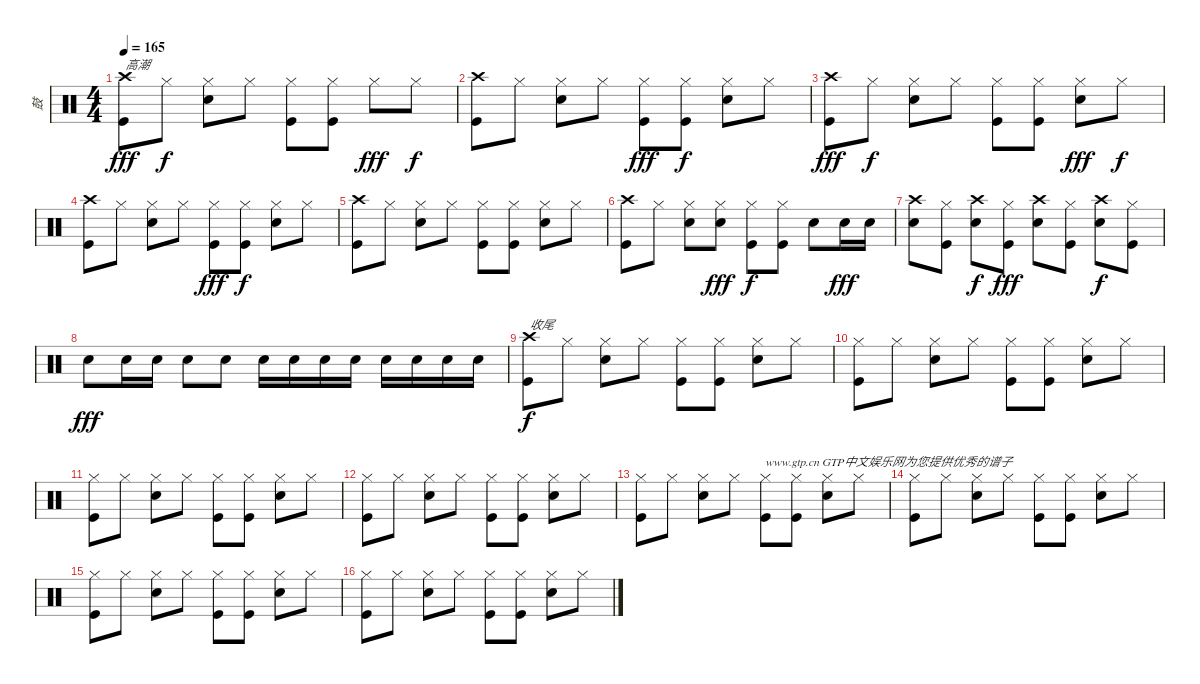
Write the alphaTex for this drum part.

\track ("鼓" "鼓") {instrument percussion}
\staff {score}
\articulation defaults
\ts (4 4)
\tempo 165
\clef neutral
\ks c
("Crash high (hit)" "Kick (hit)").8{txt "高潮" dy fff} "Hi-Hat (closed)".8{dy f} ("Hi-Hat (closed)" "Snare (hit) 2").8 "Hi-Hat (closed)".8 ("Hi-Hat (closed)" "Kick (hit)").8 ("Hi-Hat (closed)" "Kick (hit)").8 "Hi-Hat (closed)".8{dy fff} "Hi-Hat (closed)".8{dy f} |
("Crash high (hit)" "Kick (hit)").8 "Hi-Hat (closed)".8 ("Hi-Hat (closed)" "Snare (hit) 2").8 "Hi-Hat (closed)".8 ("Hi-Hat (closed)" "Kick (hit)").8{dy fff} ("Hi-Hat (closed)" "Kick (hit)").8{dy f} ("Hi-Hat (closed)" "Snare (hit) 2").8 "Hi-Hat (closed)".8 |
("Crash high (hit)" "Kick (hit)").8{dy fff} "Hi-Hat (closed)".8{dy f} ("Hi-Hat (closed)" "Snare (hit) 2").8 "Hi-Hat (closed)".8 ("Hi-Hat (closed)" "Kick (hit)").8 ("Hi-Hat (closed)" "Kick (hit)").8 ("Hi-Hat (closed)" "Snare (hit) 2").8{dy fff} "Hi-Hat (closed)".8{dy f} |
("Crash high (hit)" "Kick (hit)").8 "Hi-Hat (closed)".8 ("Hi-Hat (closed)" "Snare (hit) 2").8 "Hi-Hat (closed)".8 ("Hi-Hat (closed)" "Kick (hit)").8{dy fff} ("Hi-Hat (closed)" "Kick (hit)").8{dy f} ("Hi-Hat (closed)" "Snare (hit) 2").8 "Hi-Hat (closed)".8 |
("Crash high (hit)" "Kick (hit)").8 "Hi-Hat (closed)".8 ("Hi-Hat (closed)" "Snare (hit) 2").8 "Hi-Hat (closed)".8 ("Hi-Hat (closed)" "Kick (hit)").8 ("Hi-Hat (closed)" "Kick (hit)").8 ("Hi-Hat (closed)" "Snare (hit) 2").8 "Hi-Hat (closed)".8 |
("Crash high (hit)" "Kick (hit)").8 "Hi-Hat (closed)".8 ("Hi-Hat (closed)" "Snare (hit) 2").8 ("Hi-Hat (closed)" "Snare (hit) 2").8{dy fff} ("Hi-Hat (closed)" "Kick (hit)").8{dy f} ("Hi-Hat (closed)" "Kick (hit)").8 "Snare (hit) 2".8 "Snare (hit) 2".16{dy fff} "Snare (hit) 2".16 |
("Crash high (hit)" "Snare (hit) 2").8 ("Hi-Hat (closed)" "Kick (hit)").8 ("Crash high (hit)" "Snare (hit) 2").8{dy f} ("Hi-Hat (closed)" "Kick (hit)").8{dy fff} ("Crash high (hit)" "Snare (hit) 2").8 ("Hi-Hat (closed)" "Kick (hit)").8 ("Crash high (hit)" "Snare (hit) 2").8{dy f} ("Hi-Hat (closed)" "Kick (hit)").8 |
"Snare (hit) 2".8{dy fff} "Snare (hit) 2".16 "Snare (hit) 2".16 "Snare (hit) 2".8 "Snare (hit) 2".8 "Snare (hit) 2".16 "Snare (hit) 2".16 "Snare (hit) 2".16 "Snare (hit) 2".16 "Snare (hit) 2".16 "Snare (hit) 2".16 "Snare (hit) 2".16 "Snare (hit) 2".16 |
("Crash high (hit)" "Kick (hit)").8{txt "收尾" dy f} "Hi-Hat (closed)".8 ("Hi-Hat (closed)" "Snare (hit) 2").8 "Hi-Hat (closed)".8 ("Hi-Hat (closed)" "Kick (hit)").8 ("Hi-Hat (closed)" "Kick (hit)").8 ("Hi-Hat (closed)" "Snare (hit) 2").8 "Hi-Hat (closed)".8 |
("Hi-Hat (closed)" "Kick (hit)").8 "Hi-Hat (closed)".8 ("Hi-Hat (closed)" "Snare (hit) 2").8 "Hi-Hat (closed)".8 ("Hi-Hat (closed)" "Kick (hit)").8 ("Hi-Hat (closed)" "Kick (hit)").8 ("Hi-Hat (closed)" "Snare (hit) 2").8 "Hi-Hat (closed)".8 |
("Hi-Hat (closed)" "Kick (hit)").8 "Hi-Hat (closed)".8 ("Hi-Hat (closed)" "Snare (hit) 2").8 "Hi-Hat (closed)".8 ("Hi-Hat (closed)" "Kick (hit)").8 ("Hi-Hat (closed)" "Kick (hit)").8 ("Hi-Hat (closed)" "Snare (hit) 2").8 "Hi-Hat (closed)".8 |
("Hi-Hat (closed)" "Kick (hit)").8 "Hi-Hat (closed)".8 ("Hi-Hat (closed)" "Snare (hit) 2").8 "Hi-Hat (closed)".8 ("Hi-Hat (closed)" "Kick (hit)").8 ("Hi-Hat (closed)" "Kick (hit)").8 ("Hi-Hat (closed)" "Snare (hit) 2").8 "Hi-Hat (closed)".8 |
("Hi-Hat (closed)" "Kick (hit)").8 "Hi-Hat (closed)".8 ("Hi-Hat (closed)" "Snare (hit) 2").8 "Hi-Hat (closed)".8 ("Hi-Hat (closed)" "Kick (hit)").8{txt "www.gtp.cn GTP中文娱乐网为您提供优秀的谱子"} ("Hi-Hat (closed)" "Kick (hit)").8 ("Hi-Hat (closed)" "Snare (hit) 2").8 "Hi-Hat (closed)".8 |
("Hi-Hat (closed)" "Kick (hit)").8 "Hi-Hat (closed)".8 ("Hi-Hat (closed)" "Snare (hit) 2").8 "Hi-Hat (closed)".8 ("Hi-Hat (closed)" "Kick (hit)").8 ("Hi-Hat (closed)" "Kick (hit)").8 ("Hi-Hat (closed)" "Snare (hit) 2").8 "Hi-Hat (closed)".8 |
("Hi-Hat (closed)" "Kick (hit)").8 "Hi-Hat (closed)".8 ("Hi-Hat (closed)" "Snare (hit) 2").8 "Hi-Hat (closed)".8 ("Hi-Hat (closed)" "Kick (hit)").8 ("Hi-Hat (closed)" "Kick (hit)").8 ("Hi-Hat (closed)" "Snare (hit) 2").8 "Hi-Hat (closed)".8 |
("Hi-Hat (closed)" "Kick (hit)").8 "Hi-Hat (closed)".8 ("Hi-Hat (closed)" "Snare (hit) 2").8 "Hi-Hat (closed)".8 ("Hi-Hat (closed)" "Kick (hit)").8 ("Hi-Hat (closed)" "Kick (hit)").8 ("Hi-Hat (closed)" "Snare (hit) 2").8 "Hi-Hat (closed)".8
